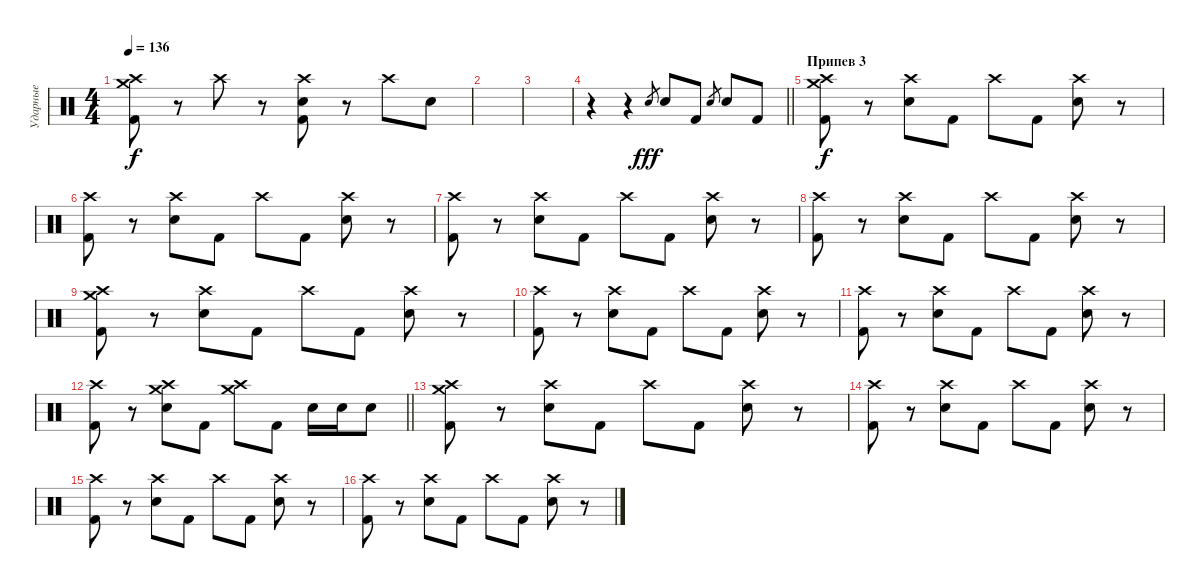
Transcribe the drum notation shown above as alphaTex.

\track ("Ударные" "Ударные") {instrument percussion}
\staff {score}
\articulation defaults
\ts (4 4)
\tempo 136
\clef neutral
\ks c
("Crash high (hit)" "Crash medium (hit)" "Kick (hit) 2").8{dy f} r.8 "Crash high (hit)".8 r.8 ("Crash high (hit)" "Electric Snare (hit)" "Kick (hit) 2").8 r.8 "Crash high (hit)".8 "Electric Snare (hit)".8 |
|
|
\barLineRight lightlight
r.4 r.4 "Electric Snare (hit)".8{gr dy fff} "Electric Snare (hit)".8 "Kick (hit) 2".8 "Electric Snare (hit)".8{gr} "Electric Snare (hit)".8 "Kick (hit) 2".8 |
\section ("" "Припев 3")
("Crash high (hit)" "Crash medium (hit)" "Kick (hit) 2").8{dy f} r.8 ("Crash high (hit)" "Electric Snare (hit)").8 "Kick (hit) 2".8 "Crash high (hit)".8 "Kick (hit) 2".8 ("Crash high (hit)" "Electric Snare (hit)").8 r.8 |
("Crash high (hit)" "Kick (hit) 2").8 r.8 ("Crash high (hit)" "Electric Snare (hit)").8 "Kick (hit) 2".8 "Crash high (hit)".8 "Kick (hit) 2".8 ("Crash high (hit)" "Electric Snare (hit)").8 r.8 |
("Crash high (hit)" "Kick (hit) 2").8 r.8 ("Crash high (hit)" "Electric Snare (hit)").8 "Kick (hit) 2".8 "Crash high (hit)".8 "Kick (hit) 2".8 ("Crash high (hit)" "Electric Snare (hit)").8 r.8 |
("Crash high (hit)" "Kick (hit) 2").8 r.8 ("Crash high (hit)" "Electric Snare (hit)").8 "Kick (hit) 2".8 "Crash high (hit)".8 "Kick (hit) 2".8 ("Crash high (hit)" "Electric Snare (hit)").8 r.8 |
("Crash high (hit)" "Crash medium (hit)" "Kick (hit) 2").8 r.8 ("Crash high (hit)" "Electric Snare (hit)").8 "Kick (hit) 2".8 "Crash high (hit)".8 "Kick (hit) 2".8 ("Crash high (hit)" "Electric Snare (hit)").8 r.8 |
("Crash high (hit)" "Kick (hit) 2").8 r.8 ("Crash high (hit)" "Electric Snare (hit)").8 "Kick (hit) 2".8 "Crash high (hit)".8 "Kick (hit) 2".8 ("Crash high (hit)" "Electric Snare (hit)").8 r.8 |
("Crash high (hit)" "Kick (hit) 2").8 r.8 ("Crash high (hit)" "Electric Snare (hit)").8 "Kick (hit) 2".8 "Crash high (hit)".8 "Kick (hit) 2".8 ("Crash high (hit)" "Electric Snare (hit)").8 r.8 |
\barLineRight lightlight
("Crash high (hit)" "Kick (hit) 2").8 r.8 ("Crash high (hit)" "Crash medium (hit)" "Electric Snare (hit)").8 "Kick (hit) 2".8 ("Crash high (hit)" "Crash medium (hit)").8 "Kick (hit) 2".8 "Electric Snare (hit)".16 "Electric Snare (hit)".16 "Electric Snare (hit)".8 |
("Crash high (hit)" "Crash medium (hit)" "Kick (hit) 2").8 r.8 ("Crash high (hit)" "Electric Snare (hit)").8 "Kick (hit) 2".8 "Crash high (hit)".8 "Kick (hit) 2".8 ("Crash high (hit)" "Electric Snare (hit)").8 r.8 |
("Crash high (hit)" "Kick (hit) 2").8 r.8 ("Crash high (hit)" "Electric Snare (hit)").8 "Kick (hit) 2".8 "Crash high (hit)".8 "Kick (hit) 2".8 ("Crash high (hit)" "Electric Snare (hit)").8 r.8 |
("Crash high (hit)" "Kick (hit) 2").8 r.8 ("Crash high (hit)" "Electric Snare (hit)").8 "Kick (hit) 2".8 "Crash high (hit)".8 "Kick (hit) 2".8 ("Crash high (hit)" "Electric Snare (hit)").8 r.8 |
("Crash high (hit)" "Kick (hit) 2").8 r.8 ("Crash high (hit)" "Electric Snare (hit)").8 "Kick (hit) 2".8 "Crash high (hit)".8 "Kick (hit) 2".8 ("Crash high (hit)" "Electric Snare (hit)").8 r.8
